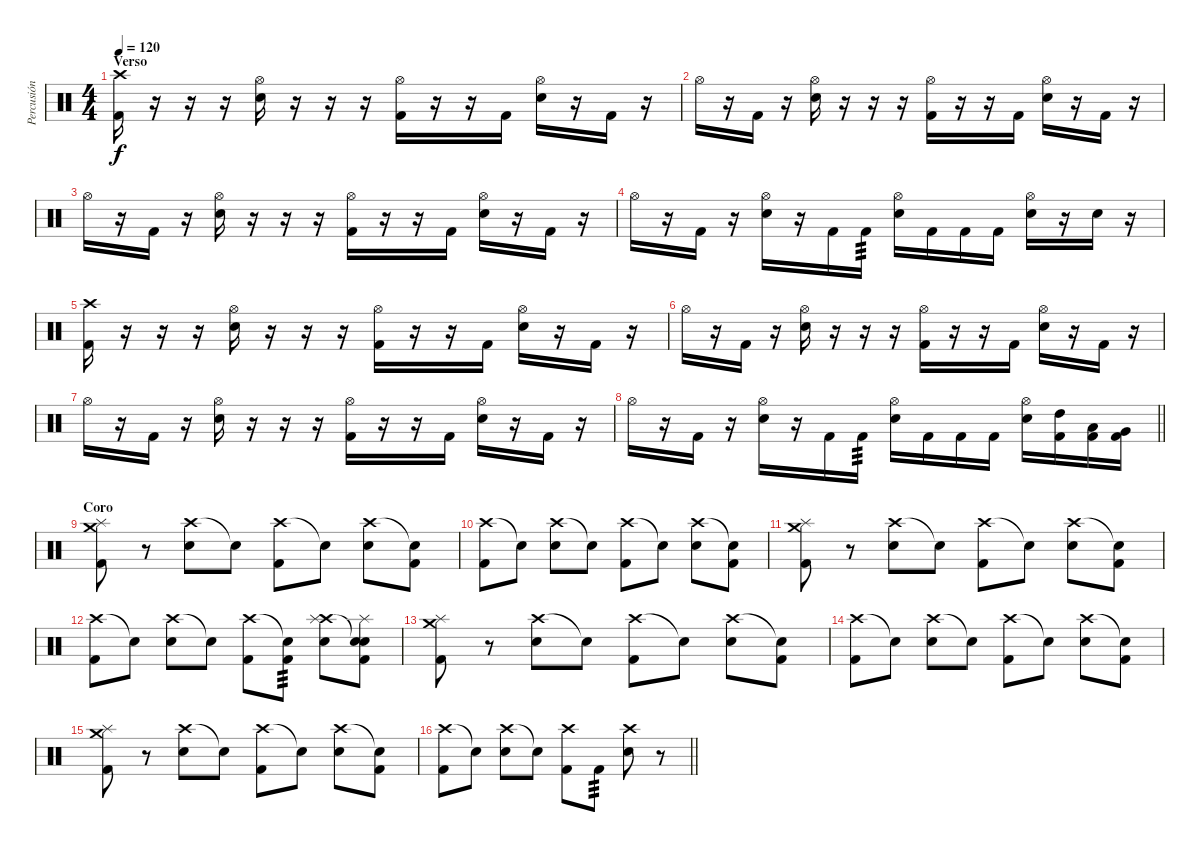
\track ("Percusión" "Percusión") {instrument percussion}
\staff {score}
\articulation defaults
\ts (4 4)
\section ("" "Verso")
\tempo 120
\clef neutral
\ks c
("Crash high (hit)" "Kick (hit) 2").16{dy f} r.16 r.16 r.16 ("Hi-Hat (open)" "Snare (hit) 2").16 r.16 r.16 r.16 ("Hi-Hat (open)" "Kick (hit) 2").16 r.16 r.16 "Kick (hit) 2".16 ("Hi-Hat (open)" "Snare (hit) 2").16 r.16 "Kick (hit) 2".16 r.16 |
"Hi-Hat (open)".16 r.16 "Kick (hit) 2".16 r.16 ("Hi-Hat (open)" "Snare (hit) 2").16 r.16 r.16 r.16 ("Hi-Hat (open)" "Kick (hit) 2").16 r.16 r.16 "Kick (hit) 2".16 ("Hi-Hat (open)" "Snare (hit) 2").16 r.16 "Kick (hit) 2".16 r.16 |
"Hi-Hat (open)".16 r.16 "Kick (hit) 2".16 r.16 ("Hi-Hat (open)" "Snare (hit) 2").16 r.16 r.16 r.16 ("Hi-Hat (open)" "Kick (hit) 2").16 r.16 r.16 "Kick (hit) 2".16 ("Hi-Hat (open)" "Snare (hit) 2").16 r.16 "Kick (hit) 2".16 r.16 |
"Hi-Hat (open)".16 r.16 "Kick (hit) 2".16 r.16 ("Hi-Hat (open)" "Snare (hit) 2").16 r.16 "Kick (hit) 2".16 "Kick (hit) 2".16{tp 3} ("Hi-Hat (open)" "Snare (hit) 2").16 "Kick (hit) 2".16 "Kick (hit) 2".16 "Kick (hit) 2".16 ("Hi-Hat (open)" "Snare (hit) 2").16 r.16 "Snare (hit) 2".16 r.16 |
("Crash high (hit)" "Kick (hit) 2").16 r.16 r.16 r.16 ("Hi-Hat (open)" "Snare (hit) 2").16 r.16 r.16 r.16 ("Hi-Hat (open)" "Kick (hit) 2").16 r.16 r.16 "Kick (hit) 2".16 ("Hi-Hat (open)" "Snare (hit) 2").16 r.16 "Kick (hit) 2".16 r.16 |
"Hi-Hat (open)".16 r.16 "Kick (hit) 2".16 r.16 ("Hi-Hat (open)" "Snare (hit) 2").16 r.16 r.16 r.16 ("Hi-Hat (open)" "Kick (hit) 2").16 r.16 r.16 "Kick (hit) 2".16 ("Hi-Hat (open)" "Snare (hit) 2").16 r.16 "Kick (hit) 2".16 r.16 |
"Hi-Hat (open)".16 r.16 "Kick (hit) 2".16 r.16 ("Hi-Hat (open)" "Snare (hit) 2").16 r.16 r.16 r.16 ("Hi-Hat (open)" "Kick (hit) 2").16 r.16 r.16 "Kick (hit) 2".16 ("Hi-Hat (open)" "Snare (hit) 2").16 r.16 "Kick (hit) 2".16 r.16 |
\barLineRight lightlight "Hi-Hat (open)".16
r.16 "Kick (hit) 2".16 r.16 ("Hi-Hat (open)" "Snare (hit) 2").16 r.16 "Kick (hit) 2".16 "Kick (hit) 2".16{tp 3} ("Hi-Hat (open)" "Snare (hit) 2").16 "Kick (hit) 2".16 "Kick (hit) 2".16 "Kick (hit) 2".16 ("Hi-Hat (open)" "Snare (hit) 2").16 ("High Tom (hit)" "Kick (hit) 2").16 ("Low Tom (hit)" "Kick (hit) 2").16 ("Very Low Tom (hit)" "Kick (hit) 2").16 |
\section ("" "Coro")
("Splash (hit)" "Crash medium (hit)" "Kick (hit) 2").8 r.8 ("Crash high (hit)" "Snare (hit) 2").8 "Snare (hit)"{t}.8 ("Crash high (hit)" "Kick (hit) 2").8 "Snare (hit)"{t}.8 ("Crash high (hit)" "Snare (hit) 2").8 ("Snare (hit)"{t} "Kick (hit) 2").8 |
("Crash high (hit)" "Kick (hit) 2").8 "Snare (hit)"{t}.8 ("Crash high (hit)" "Snare (hit) 2").8 "Snare (hit)"{t}.8 ("Crash high (hit)" "Kick (hit) 2").8 "Snare (hit)"{t}.8 ("Crash high (hit)" "Snare (hit) 2").8 ("Snare (hit)"{t} "Kick (hit) 2").8 |
("Splash (hit)" "Crash medium (hit)" "Kick (hit) 2").8 r.8 ("Crash high (hit)" "Snare (hit) 2").8 "Snare (hit)"{t}.8 ("Crash high (hit)" "Kick (hit) 2").8 "Snare (hit)"{t}.8 ("Crash high (hit)" "Snare (hit) 2").8 ("Snare (hit)"{t} "Kick (hit) 2").8 |
("Crash high (hit)" "Kick (hit) 2").8 "Snare (hit)"{t}.8 ("Crash high (hit)" "Snare (hit) 2").8 "Snare (hit)"{t}.8 ("Crash high (hit)" "Kick (hit) 2").8 ("Snare (hit)"{t} "Kick (hit) 2").8{tp 3} ("Crash high (hit)" "Splash (hit)" "Snare (hit) 2").8 ("Snare (hit)"{t} "Splash (hit)" "Snare (hit) 2" "Kick (hit) 2").8 |
("Splash (hit)" "Crash medium (hit)" "Kick (hit) 2").8 r.8 ("Crash high (hit)" "Snare (hit) 2").8 "Snare (hit)"{t}.8 ("Crash high (hit)" "Kick (hit) 2").8 "Snare (hit)"{t}.8 ("Crash high (hit)" "Snare (hit) 2").8 ("Snare (hit)"{t} "Kick (hit) 2").8 |
("Crash high (hit)" "Kick (hit) 2").8 "Snare (hit)"{t}.8 ("Crash high (hit)" "Snare (hit) 2").8 "Snare (hit)"{t}.8 ("Crash high (hit)" "Kick (hit) 2").8 "Snare (hit)"{t}.8 ("Crash high (hit)" "Snare (hit) 2").8 ("Snare (hit)"{t} "Kick (hit) 2").8 |
("Splash (hit)" "Crash medium (hit)" "Kick (hit) 2").8 r.8 ("Crash high (hit)" "Snare (hit) 2").8 "Snare (hit)"{t}.8 ("Crash high (hit)" "Kick (hit) 2").8 "Snare (hit)"{t}.8 ("Crash high (hit)" "Snare (hit) 2").8 ("Snare (hit)"{t} "Kick (hit) 2").8 |
\barLineRight lightlight
("Crash high (hit)" "Kick (hit) 2").8 "Snare (hit)"{t}.8 ("Crash high (hit)" "Snare (hit) 2").8 "Snare (hit)"{t}.8 ("Crash high (hit)" "Kick (hit) 2").8 "Kick (hit) 2".8{tp 3} ("Crash high (hit)" "Snare (hit) 2").8 r.8
